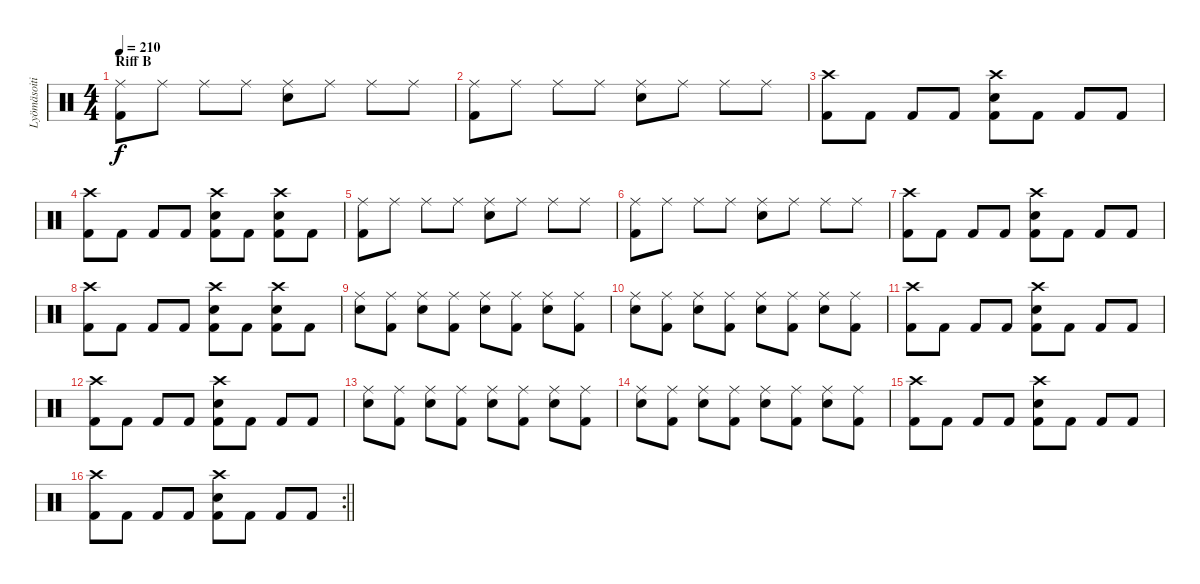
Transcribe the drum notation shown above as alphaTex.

\track ("Lyömäsoitin" "Lyömäsoiti") {instrument percussion}
\staff {score}
\articulation defaults
\ts (4 4)
\section ("" "Riff B")
\tempo 210
\clef neutral
\ks c
("Ride (middle)" "Kick (hit) 2").8{dy f} "Ride (middle)".8 "Ride (middle)".8 "Ride (middle)".8 ("Ride (middle)" "Electric Snare (hit)").8 "Ride (middle)".8 "Ride (middle)".8 "Ride (middle)".8 |
("Ride (middle)" "Kick (hit) 2").8 "Ride (middle)".8 "Ride (middle)".8 "Ride (middle)".8 ("Ride (middle)" "Electric Snare (hit)").8 "Ride (middle)".8 "Ride (middle)".8 "Ride (middle)".8 |
("Crash high (hit)" "Kick (hit) 2").8 "Kick (hit) 2".8 "Kick (hit) 2".8 "Kick (hit) 2".8 ("Crash high (hit)" "Electric Snare (hit)" "Kick (hit) 2").8 "Kick (hit) 2".8 "Kick (hit) 2".8 "Kick (hit) 2".8 |
("Crash high (hit)" "Kick (hit) 2").8 "Kick (hit) 2".8 "Kick (hit) 2".8 "Kick (hit) 2".8 ("Crash high (hit)" "Electric Snare (hit)" "Kick (hit) 2").8 "Kick (hit) 2".8 ("Crash high (hit)" "Electric Snare (hit)" "Kick (hit) 2").8 "Kick (hit) 2".8 |
("Ride (middle)" "Kick (hit) 2").8 "Ride (middle)".8 "Ride (middle)".8 "Ride (middle)".8 ("Ride (middle)" "Electric Snare (hit)").8 "Ride (middle)".8 "Ride (middle)".8 "Ride (middle)".8 |
("Ride (middle)" "Kick (hit) 2").8 "Ride (middle)".8 "Ride (middle)".8 "Ride (middle)".8 ("Ride (middle)" "Electric Snare (hit)").8 "Ride (middle)".8 "Ride (middle)".8 "Ride (middle)".8 |
("Crash high (hit)" "Kick (hit) 2").8 "Kick (hit) 2".8 "Kick (hit) 2".8 "Kick (hit) 2".8 ("Crash high (hit)" "Electric Snare (hit)" "Kick (hit) 2").8 "Kick (hit) 2".8 "Kick (hit) 2".8 "Kick (hit) 2".8 |
("Crash high (hit)" "Kick (hit) 2").8 "Kick (hit) 2".8 "Kick (hit) 2".8 "Kick (hit) 2".8 ("Crash high (hit)" "Electric Snare (hit)" "Kick (hit) 2").8 "Kick (hit) 2".8 ("Crash high (hit)" "Electric Snare (hit)" "Kick (hit) 2").8 "Kick (hit) 2".8 |
("Ride (middle)" "Electric Snare (hit)").8 ("Ride (middle)" "Kick (hit) 2").8 ("Ride (middle)" "Electric Snare (hit)").8 ("Ride (middle)" "Kick (hit) 2").8 ("Ride (middle)" "Electric Snare (hit)").8 ("Ride (middle)" "Kick (hit) 2").8 ("Ride (middle)" "Electric Snare (hit)").8 ("Ride (middle)" "Kick (hit) 2").8 |
("Ride (middle)" "Electric Snare (hit)").8 ("Ride (middle)" "Kick (hit) 2").8 ("Ride (middle)" "Electric Snare (hit)").8 ("Ride (middle)" "Kick (hit) 2").8 ("Ride (middle)" "Electric Snare (hit)").8 ("Ride (middle)" "Kick (hit) 2").8 ("Ride (middle)" "Electric Snare (hit)").8 ("Ride (middle)" "Kick (hit) 2").8 |
("Crash high (hit)" "Kick (hit) 2").8 "Kick (hit) 2".8 "Kick (hit) 2".8 "Kick (hit) 2".8 ("Crash high (hit)" "Electric Snare (hit)" "Kick (hit) 2").8 "Kick (hit) 2".8 "Kick (hit) 2".8 "Kick (hit) 2".8 |
("Crash high (hit)" "Kick (hit) 2").8 "Kick (hit) 2".8 "Kick (hit) 2".8 "Kick (hit) 2".8 ("Crash high (hit)" "Electric Snare (hit)" "Kick (hit) 2").8 "Kick (hit) 2".8 "Kick (hit) 2".8 "Kick (hit) 2".8 |
("Ride (middle)" "Electric Snare (hit)").8 ("Ride (middle)" "Kick (hit) 2").8 ("Ride (middle)" "Electric Snare (hit)").8 ("Ride (middle)" "Kick (hit) 2").8 ("Ride (middle)" "Electric Snare (hit)").8 ("Ride (middle)" "Kick (hit) 2").8 ("Ride (middle)" "Electric Snare (hit)").8 ("Ride (middle)" "Kick (hit) 2").8 |
("Ride (middle)" "Electric Snare (hit)").8 ("Ride (middle)" "Kick (hit) 2").8 ("Ride (middle)" "Electric Snare (hit)").8 ("Ride (middle)" "Kick (hit) 2").8 ("Ride (middle)" "Electric Snare (hit)").8 ("Ride (middle)" "Kick (hit) 2").8 ("Ride (middle)" "Electric Snare (hit)").8 ("Ride (middle)" "Kick (hit) 2").8 |
("Crash high (hit)" "Kick (hit) 2").8 "Kick (hit) 2".8 "Kick (hit) 2".8 "Kick (hit) 2".8 ("Crash high (hit)" "Electric Snare (hit)" "Kick (hit) 2").8 "Kick (hit) 2".8 "Kick (hit) 2".8 "Kick (hit) 2".8 |
\rc 2
\barLineRight lightlight
("Crash high (hit)" "Kick (hit) 2").8 "Kick (hit) 2".8 "Kick (hit) 2".8 "Kick (hit) 2".8 ("Crash high (hit)" "Electric Snare (hit)" "Kick (hit) 2").8 "Kick (hit) 2".8 "Kick (hit) 2".8 "Kick (hit) 2".8
